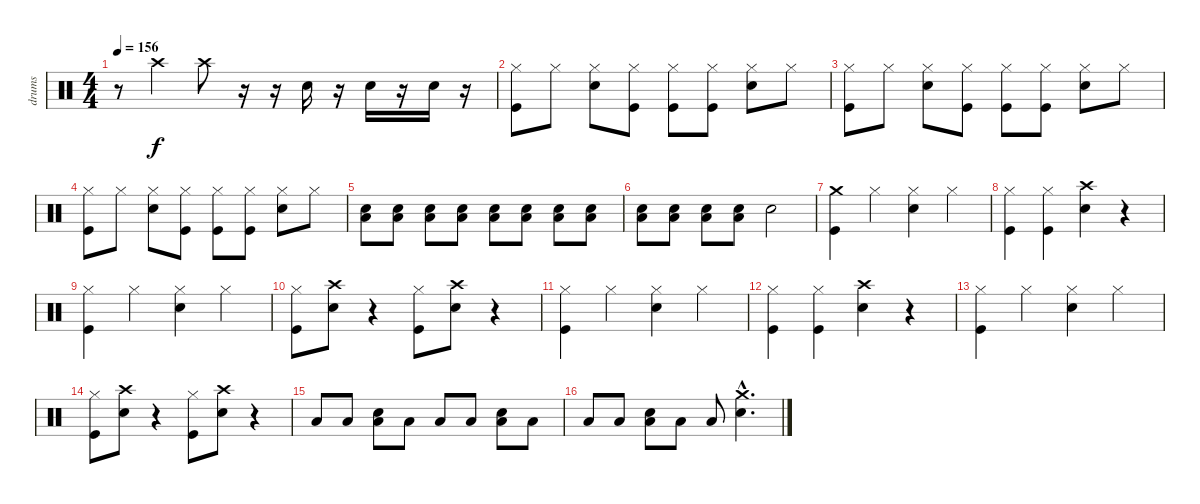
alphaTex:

\track ("drums" "drums") {instrument percussion}
\staff {score}
\articulation defaults
\ts (4 4)
\tempo 156
\clef neutral
\ks c
r.8{dy f} "Crash high (hit)".4 "Crash high (hit)".8 r.16 r.16 "Snare (hit) 2".16 r.16 "Snare (hit) 2".16 r.16 "Snare (hit) 2".16 r.16 |
("Hi-Hat (closed)" "Kick (hit)").8 "Hi-Hat (closed)".8 ("Hi-Hat (closed)" "Snare (hit) 2").8 ("Hi-Hat (closed)" "Kick (hit)").8 ("Hi-Hat (closed)" "Kick (hit)").8 ("Hi-Hat (closed)" "Kick (hit)").8 ("Hi-Hat (closed)" "Snare (hit) 2").8 "Hi-Hat (closed)".8 |
("Hi-Hat (closed)" "Kick (hit)").8 "Hi-Hat (closed)".8 ("Hi-Hat (closed)" "Snare (hit) 2").8 ("Hi-Hat (closed)" "Kick (hit)").8 ("Hi-Hat (closed)" "Kick (hit)").8 ("Hi-Hat (closed)" "Kick (hit)").8 ("Hi-Hat (closed)" "Snare (hit) 2").8 "Hi-Hat (closed)".8 |
("Hi-Hat (closed)" "Kick (hit)").8 "Hi-Hat (closed)".8 ("Hi-Hat (closed)" "Snare (hit) 2").8 ("Hi-Hat (closed)" "Kick (hit)").8 ("Hi-Hat (closed)" "Kick (hit)").8 ("Hi-Hat (closed)" "Kick (hit)").8 ("Hi-Hat (closed)" "Snare (hit) 2").8 "Hi-Hat (closed)".8 |
("Low Tom (hit)" "Snare (hit) 2").8 ("Low Tom (hit)" "Snare (hit) 2").8 ("Low Tom (hit)" "Snare (hit) 2").8 ("Low Tom (hit)" "Snare (hit) 2").8 ("Low Tom (hit)" "Snare (hit) 2").8 ("Low Tom (hit)" "Snare (hit) 2").8 ("Low Tom (hit)" "Snare (hit) 2").8 ("Low Tom (hit)" "Snare (hit) 2").8 |
("Low Tom (hit)" "Snare (hit) 2").8 ("Low Tom (hit)" "Snare (hit) 2").8 ("Low Tom (hit)" "Snare (hit) 2").8 ("Low Tom (hit)" "Snare (hit) 2").8 "Snare (hit) 2".2 |
("Crash medium (hit)" "Kick (hit)").4 "Hi-Hat (closed)".4 ("Hi-Hat (closed)" "Snare (hit) 2").4 "Hi-Hat (closed)".4 |
("Hi-Hat (closed)" "Kick (hit)").4 ("Hi-Hat (closed)" "Kick (hit)").4 ("Crash high (hit)" "Snare (hit) 2").4 r.4 |
("Hi-Hat (closed)" "Kick (hit)").4 "Hi-Hat (closed)".4 ("Hi-Hat (closed)" "Snare (hit) 2").4 "Hi-Hat (closed)".4 |
("Hi-Hat (closed)" "Kick (hit)").8 ("Crash high (hit)" "Snare (hit) 2").8 r.4 ("Hi-Hat (closed)" "Kick (hit)").8 ("Crash high (hit)" "Snare (hit) 2").8 r.4 |
("Hi-Hat (closed)" "Kick (hit)").4 "Hi-Hat (closed)".4 ("Hi-Hat (closed)" "Snare (hit) 2").4 "Hi-Hat (closed)".4 |
("Hi-Hat (closed)" "Kick (hit)").4 ("Hi-Hat (closed)" "Kick (hit)").4 ("Crash high (hit)" "Snare (hit) 2").4 r.4 |
("Hi-Hat (closed)" "Kick (hit)").4 "Hi-Hat (closed)".4 ("Hi-Hat (closed)" "Snare (hit) 2").4 "Hi-Hat (closed)".4 |
("Hi-Hat (closed)" "Kick (hit)").8 ("Crash high (hit)" "Snare (hit) 2").8 r.4 ("Hi-Hat (closed)" "Kick (hit)").8 ("Crash high (hit)" "Snare (hit) 2").8 r.4 |
"Low Tom (hit)".8 "Low Tom (hit)".8 ("Snare (hit) 2" "Low Tom (hit)").8 "Low Tom (hit)".8 "Low Tom (hit)".8 "Low Tom (hit)".8 ("Snare (hit) 2" "Low Tom (hit)").8 "Low Tom (hit)".8 |
"Low Tom (hit)".8 "Low Tom (hit)".8 ("Snare (hit) 2" "Low Tom (hit)").8 "Low Tom (hit)".8 "Low Tom (hit)".8 ("Crash medium (hit)"{hac} "Snare (hit) 2"{hac}).4{d}
